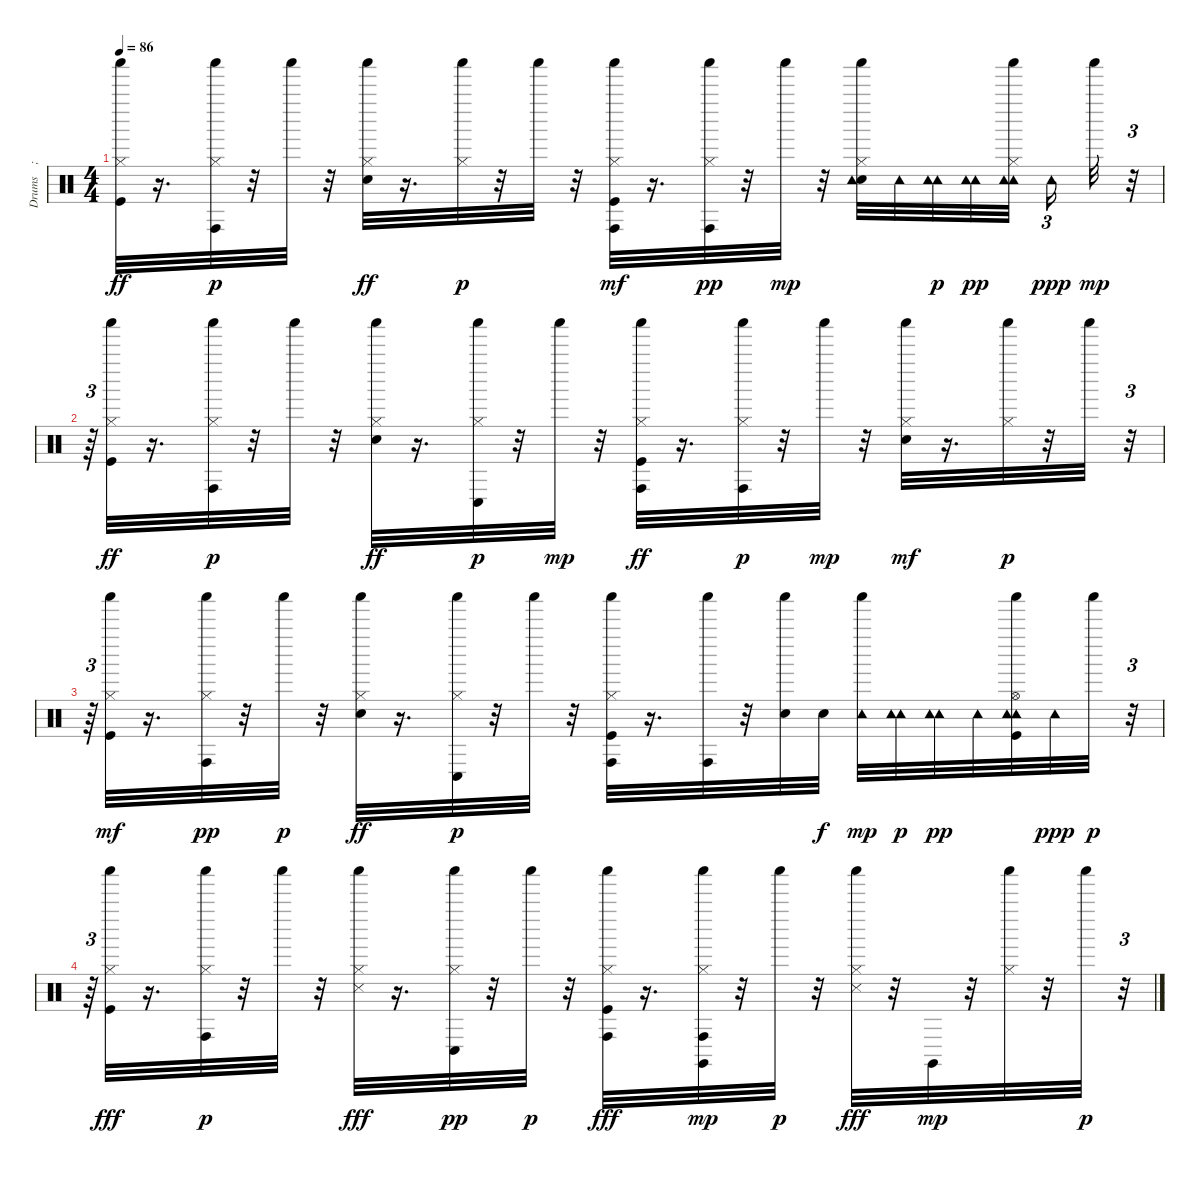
\track ("Drums    ; Standard" "Drums    ;") {instrument percussion}
\staff {score}
\articulation defaults
\ts (4 4)
\tempo 86
\clef neutral
\ks c
("Kick (hit)" "Shaker (hit)" "Hi-Hat (closed)").32{dy ff} r.16{d} ("Shaker (hit)" "Hi-Hat (closed)" "Conga high (hit)").32{dy p} r.32 "Shaker (hit)".32 r.32 ("Electric Snare (hit)" "Shaker (hit)" "Hi-Hat (closed)").32{dy ff} r.16{d} ("Shaker (hit)" "Hi-Hat (closed)").32{dy p} r.32 "Shaker (hit)".32 r.32 ("Kick (hit)" "Shaker (hit)" "Conga high (hit)" "Hi-Hat (closed)").32{dy mf} r.16{d} ("Conga high (hit)" "Shaker (hit)" "Hi-Hat (closed)").32{dy pp} r.32 "Shaker (hit)".32{dy mp} r.32 ("Shaker (hit)" "Electric Snare (hit)" "Hi-Hat (closed)" "Tambourine (hit)").32 "Tambourine (hit)".32 ("Tambourine (hit)" "Tambourine (hit)").32{dy p} ("Tambourine (hit)" "Tambourine (hit)").32{dy pp} ("Tambourine (hit)" "Shaker (hit)" "Hi-Hat (closed)" "Tambourine (hit)").32 "Tambourine (hit)".16{tu (3 2) dy ppp} "Shaker (hit)".32{dy mp} r.32{tu (3 2)} |
r.64{tu (3 2)} ("Kick (hit)" "Shaker (hit)" "Hi-Hat (closed)").32{dy ff} r.16{d} ("Conga high (hit)" "Shaker (hit)" "Hi-Hat (closed)").32{dy p} r.32 "Shaker (hit)".32 r.32 ("Shaker (hit)" "Electric Snare (hit)" "Hi-Hat (closed)").32{dy ff} r.16{d} ("Conga low (hit)" "Shaker (hit)" "Hi-Hat (closed)").32{dy p} r.32 "Shaker (hit)".32{dy mp} r.32 ("Kick (hit)" "Conga high (hit)" "Shaker (hit)" "Hi-Hat (closed)").32{dy ff} r.16{d} ("Conga high (hit)" "Shaker (hit)" "Hi-Hat (closed)").32{dy p} r.32 "Shaker (hit)".32{dy mp} r.32 ("Shaker (hit)" "Electric Snare (hit)" "Hi-Hat (closed)").32{dy mf} r.16{d} ("Hi-Hat (closed)" "Shaker (hit)").32{dy p} r.32 "Shaker (hit)".32 r.32{tu (3 2)} |
r.64{tu (3 2)} ("Shaker (hit)" "Kick (hit)" "Hi-Hat (closed)").32{dy mf} r.16{d} ("Shaker (hit)" "Conga high (hit)" "Hi-Hat (closed)").32{dy pp} r.32 "Shaker (hit)".32{dy p} r.32 ("Electric Snare (hit)" "Shaker (hit)" "Hi-Hat (closed)").32{dy ff} r.16{d} ("Shaker (hit)" "Conga low (hit)" "Hi-Hat (closed)").32{dy p} r.32 "Shaker (hit)".32 r.32 ("Kick (hit)" "Shaker (hit)" "Hi-Hat (closed)" "Conga high (hit)").32 r.16{d} ("Shaker (hit)" "Conga high (hit)").32 r.32 ("Electric Snare (hit)" "Shaker (hit)").32 "Electric Snare (hit)".32{dy f} ("Shaker (hit)" "Tambourine (hit)").32{dy mp} ("Tambourine (hit)" "Tambourine (hit)").32{dy p} ("Tambourine (hit)" "Tambourine (hit)").32{dy pp} "Tambourine (hit)".32 ("Tambourine (hit)" "Shaker (hit)" "Kick (hit)" "Hi-Hat (open)" "Tambourine (hit)").32 "Tambourine (hit)".32{dy ppp} "Shaker (hit)".32{dy p} r.32{tu (3 2)} |
r.64{tu (3 2)} ("Kick (hit)" "Shaker (hit)" "Hi-Hat (closed)").32{dy fff} r.16{d} ("Shaker (hit)" "Hi-Hat (closed)" "Conga high (hit)").32{dy p} r.32 "Shaker (hit)".32 r.32 ("Shaker (hit)" "Hi-Hat (closed)" "Snare (side stick) 3").32{dy fff} r.16{d} ("Shaker (hit)" "Hi-Hat (closed)" "Conga low (hit)").32{dy pp} r.32 "Shaker (hit)".32{dy p} r.32 ("Kick (hit)" "Shaker (hit)" "Conga high (hit)" "Hi-Hat (closed)").32{dy fff} r.16{d} ("Conga high (hit)" "Shaker (hit)" "Hi-Hat (closed)" "Claves (hit)").32{dy mp} r.32 "Shaker (hit)".32{dy p} r.32 ("Snare (side stick) 3" "Shaker (hit)" "Hi-Hat (closed)").32{dy fff} r.32 "Claves (hit)".32{dy mp} r.32 ("Shaker (hit)" "Hi-Hat (closed)").32 r.32 "Shaker (hit)".32{dy p} r.32{tu (3 2)}
